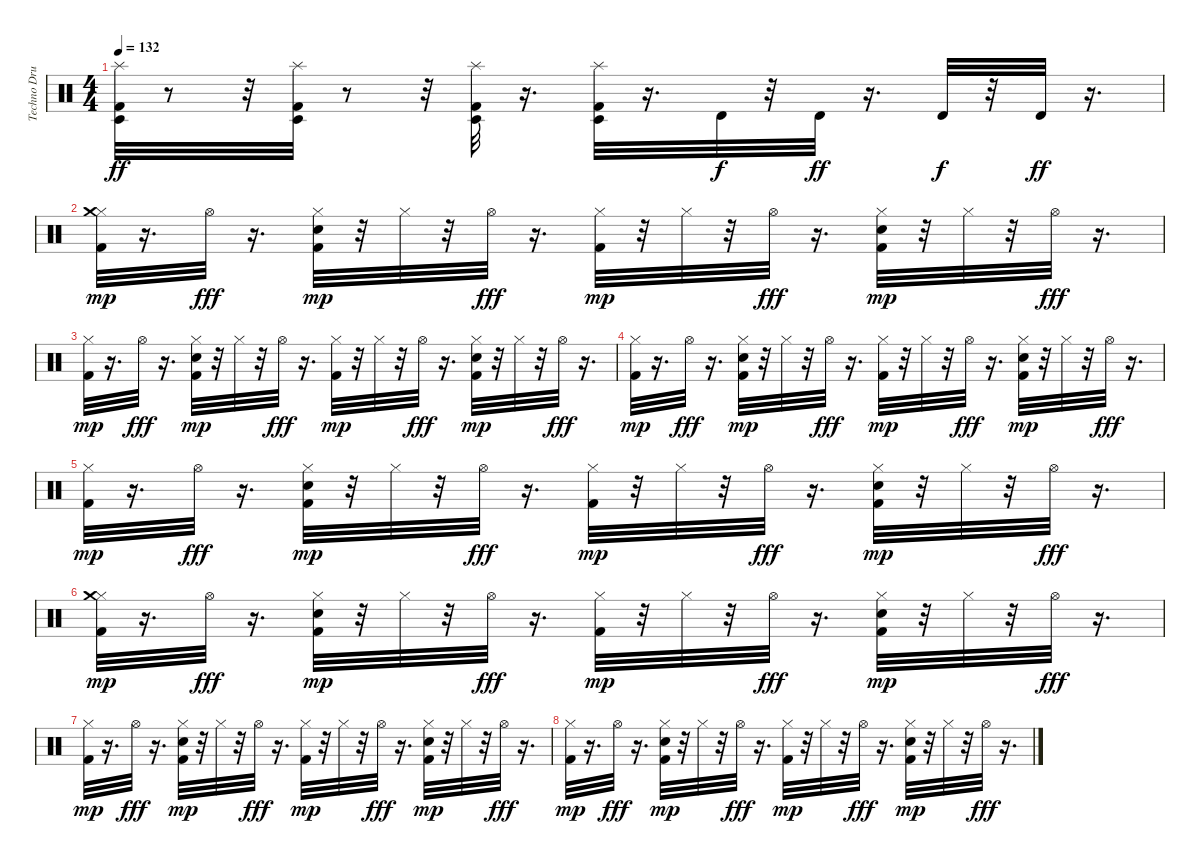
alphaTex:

\track ("Techno Drums" "Techno Dru") {instrument percussion}
\staff {score}
\articulation defaults
\ts (4 4)
\tempo 132
\clef neutral
\ks c
("Kick (hit) 2" "Timbale low (hit)" "Splash (hit)").32{dy ff} r.8 r.32 ("Kick (hit) 2" "Timbale low (hit)" "Splash (hit)").32 r.8 r.32 ("Kick (hit) 2" "Timbale low (hit)" "Splash (hit)").32 r.16{d} ("Timbale low (hit)" "Splash (hit)" "Kick (hit) 2").32 r.16{d} "Timbale high (hit)".32{dy f} r.32 "Timbale high (hit)".32{dy ff} r.16{d} "Timbale high (hit)".32{dy f} r.32 "Timbale high (hit)".32{dy ff} r.16{d} |
("Kick (hit) 2" "Hi-Hat (closed)" "Crash medium (hit)").32{dy mp} r.16{d} "Hi-Hat (open)".32{dy fff} r.16{d} ("Kick (hit) 2" "Hand Clap (hit)" "Hi-Hat (closed)").32{dy mp} r.32 "Hi-Hat (closed)".32 r.32 "Hi-Hat (open)".32{dy fff} r.16{d} ("Kick (hit) 2" "Hi-Hat (closed)").32{dy mp} r.32 "Hi-Hat (closed)".32 r.32 "Hi-Hat (open)".32{dy fff} r.16{d} ("Kick (hit) 2" "Hand Clap (hit)" "Hi-Hat (closed)").32{dy mp} r.32 "Hi-Hat (closed)".32 r.32 "Hi-Hat (open)".32{dy fff} r.16{d} |
("Kick (hit) 2" "Hi-Hat (closed)").32{dy mp} r.16{d} "Hi-Hat (open)".32{dy fff} r.16{d} ("Kick (hit) 2" "Hand Clap (hit)" "Hi-Hat (closed)").32{dy mp} r.32 "Hi-Hat (closed)".32 r.32 "Hi-Hat (open)".32{dy fff} r.16{d} ("Kick (hit) 2" "Hi-Hat (closed)").32{dy mp} r.32 "Hi-Hat (closed)".32 r.32 "Hi-Hat (open)".32{dy fff} r.16{d} ("Kick (hit) 2" "Hand Clap (hit)" "Hi-Hat (closed)").32{dy mp} r.32 "Hi-Hat (closed)".32 r.32 "Hi-Hat (open)".32{dy fff} r.16{d} |
("Kick (hit) 2" "Hi-Hat (closed)").32{dy mp} r.16{d} "Hi-Hat (open)".32{dy fff} r.16{d} ("Kick (hit) 2" "Hand Clap (hit)" "Hi-Hat (closed)").32{dy mp} r.32 "Hi-Hat (closed)".32 r.32 "Hi-Hat (open)".32{dy fff} r.16{d} ("Kick (hit) 2" "Hi-Hat (closed)").32{dy mp} r.32 "Hi-Hat (closed)".32 r.32 "Hi-Hat (open)".32{dy fff} r.16{d} ("Kick (hit) 2" "Hand Clap (hit)" "Hi-Hat (closed)").32{dy mp} r.32 "Hi-Hat (closed)".32 r.32 "Hi-Hat (open)".32{dy fff} r.16{d} |
("Kick (hit) 2" "Hi-Hat (closed)").32{dy mp} r.16{d} "Hi-Hat (open)".32{dy fff} r.16{d} ("Kick (hit) 2" "Hand Clap (hit)" "Hi-Hat (closed)").32{dy mp} r.32 "Hi-Hat (closed)".32 r.32 "Hi-Hat (open)".32{dy fff} r.16{d} ("Kick (hit) 2" "Hi-Hat (closed)").32{dy mp} r.32 "Hi-Hat (closed)".32 r.32 "Hi-Hat (open)".32{dy fff} r.16{d} ("Kick (hit) 2" "Hand Clap (hit)" "Hi-Hat (closed)").32{dy mp} r.32 "Hi-Hat (closed)".32 r.32 "Hi-Hat (open)".32{dy fff} r.16{d} |
("Kick (hit) 2" "Hi-Hat (closed)" "Crash medium (hit)").32{dy mp} r.16{d} "Hi-Hat (open)".32{dy fff} r.16{d} ("Kick (hit) 2" "Hand Clap (hit)" "Hi-Hat (closed)").32{dy mp} r.32 "Hi-Hat (closed)".32 r.32 "Hi-Hat (open)".32{dy fff} r.16{d} ("Kick (hit) 2" "Hi-Hat (closed)").32{dy mp} r.32 "Hi-Hat (closed)".32 r.32 "Hi-Hat (open)".32{dy fff} r.16{d} ("Kick (hit) 2" "Hand Clap (hit)" "Hi-Hat (closed)").32{dy mp} r.32 "Hi-Hat (closed)".32 r.32 "Hi-Hat (open)".32{dy fff} r.16{d} |
("Kick (hit) 2" "Hi-Hat (closed)").32{dy mp} r.16{d} "Hi-Hat (open)".32{dy fff} r.16{d} ("Kick (hit) 2" "Hand Clap (hit)" "Hi-Hat (closed)").32{dy mp} r.32 "Hi-Hat (closed)".32 r.32 "Hi-Hat (open)".32{dy fff} r.16{d} ("Kick (hit) 2" "Hi-Hat (closed)").32{dy mp} r.32 "Hi-Hat (closed)".32 r.32 "Hi-Hat (open)".32{dy fff} r.16{d} ("Kick (hit) 2" "Hand Clap (hit)" "Hi-Hat (closed)").32{dy mp} r.32 "Hi-Hat (closed)".32 r.32 "Hi-Hat (open)".32{dy fff} r.16{d} |
("Kick (hit) 2" "Hi-Hat (closed)").32{dy mp} r.16{d} "Hi-Hat (open)".32{dy fff} r.16{d} ("Kick (hit) 2" "Hand Clap (hit)" "Hi-Hat (closed)").32{dy mp} r.32 "Hi-Hat (closed)".32 r.32 "Hi-Hat (open)".32{dy fff} r.16{d} ("Kick (hit) 2" "Hi-Hat (closed)").32{dy mp} r.32 "Hi-Hat (closed)".32 r.32 "Hi-Hat (open)".32{dy fff} r.16{d} ("Kick (hit) 2" "Hand Clap (hit)" "Hi-Hat (closed)").32{dy mp} r.32 "Hi-Hat (closed)".32 r.32 "Hi-Hat (open)".32{dy fff} r.16{d}
